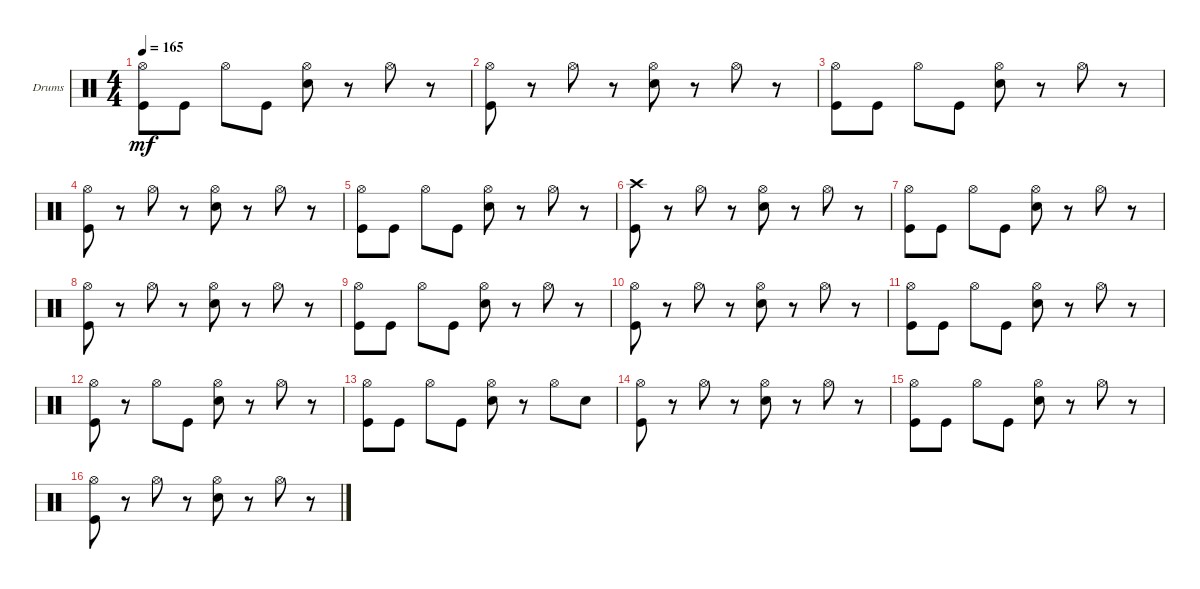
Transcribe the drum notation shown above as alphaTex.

\defaultSystemsLayout 4
\bracketExtendMode groupsimilarinstruments
\firstSystemTrackNameOrientation horizontal
\otherSystemsTrackNameOrientation horizontal
\track ("Drumkit" "Drums") {instrument percussion}
\staff {score}
\articulation defaults
\ts (4 4)
\tempo 165
\clef neutral
\ks c
("Kick (hit)" "Hi-Hat (open)").8{dy mf} "Kick (hit)".8 "Hi-Hat (open)".8 "Kick (hit)".8 ("Hi-Hat (open)" "Snare (hit) 2").8 r.8 "Hi-Hat (open)".8 r.8 |
("Kick (hit)" "Hi-Hat (open)").8 r.8 "Hi-Hat (open)".8 r.8 ("Hi-Hat (open)" "Snare (hit) 2").8 r.8 "Hi-Hat (open)".8 r.8 |
("Kick (hit)" "Hi-Hat (open)").8 "Kick (hit)".8 "Hi-Hat (open)".8 "Kick (hit)".8 ("Hi-Hat (open)" "Snare (hit) 2").8 r.8 "Hi-Hat (open)".8 r.8 |
("Kick (hit)" "Hi-Hat (open)").8 r.8 "Hi-Hat (open)".8 r.8 ("Hi-Hat (open)" "Snare (hit) 2").8 r.8 "Hi-Hat (open)".8 r.8 |
("Kick (hit)" "Hi-Hat (open)").8 "Kick (hit)".8 "Hi-Hat (open)".8 "Kick (hit)".8 ("Hi-Hat (open)" "Snare (hit) 2").8 r.8 "Hi-Hat (open)".8 r.8 |
("Kick (hit)" "Crash high (hit)").8 r.8 "Hi-Hat (open)".8 r.8 ("Hi-Hat (open)" "Snare (hit) 2").8 r.8 "Hi-Hat (open)".8 r.8 |
("Kick (hit)" "Hi-Hat (open)").8 "Kick (hit)".8 "Hi-Hat (open)".8 "Kick (hit)".8 ("Hi-Hat (open)" "Snare (hit) 2").8 r.8 "Hi-Hat (open)".8 r.8 |
("Kick (hit)" "Hi-Hat (open)").8 r.8 "Hi-Hat (open)".8 r.8 ("Hi-Hat (open)" "Snare (hit) 2").8 r.8 "Hi-Hat (open)".8 r.8 |
("Kick (hit)" "Hi-Hat (open)").8 "Kick (hit)".8 "Hi-Hat (open)".8 "Kick (hit)".8 ("Hi-Hat (open)" "Snare (hit) 2").8 r.8 "Hi-Hat (open)".8 r.8 |
("Kick (hit)" "Hi-Hat (open)").8 r.8 "Hi-Hat (open)".8 r.8 ("Hi-Hat (open)" "Snare (hit) 2").8 r.8 "Hi-Hat (open)".8 r.8 |
("Kick (hit)" "Hi-Hat (open)").8 "Kick (hit)".8 "Hi-Hat (open)".8 "Kick (hit)".8 ("Hi-Hat (open)" "Snare (hit) 2").8 r.8 "Hi-Hat (open)".8 r.8 |
("Kick (hit)" "Hi-Hat (open)").8 r.8 "Hi-Hat (open)".8 "Kick (hit)".8 ("Hi-Hat (open)" "Snare (hit) 2").8 r.8 "Hi-Hat (open)".8 r.8 |
("Kick (hit)" "Hi-Hat (open)").8 "Kick (hit)".8 "Hi-Hat (open)".8 "Kick (hit)".8 ("Hi-Hat (open)" "Snare (hit) 2").8 r.8 "Hi-Hat (open)".8 "Snare (hit) 2".8 |
("Kick (hit)" "Hi-Hat (open)").8 r.8 "Hi-Hat (open)".8 r.8 ("Hi-Hat (open)" "Snare (hit) 2").8 r.8 "Hi-Hat (open)".8 r.8 |
("Kick (hit)" "Hi-Hat (open)").8 "Kick (hit)".8 "Hi-Hat (open)".8 "Kick (hit)".8 ("Hi-Hat (open)" "Snare (hit) 2").8 r.8 "Hi-Hat (open)".8 r.8 |
("Kick (hit)" "Hi-Hat (open)").8 r.8 "Hi-Hat (open)".8 r.8 ("Hi-Hat (open)" "Snare (hit) 2").8 r.8 "Hi-Hat (open)".8 r.8
